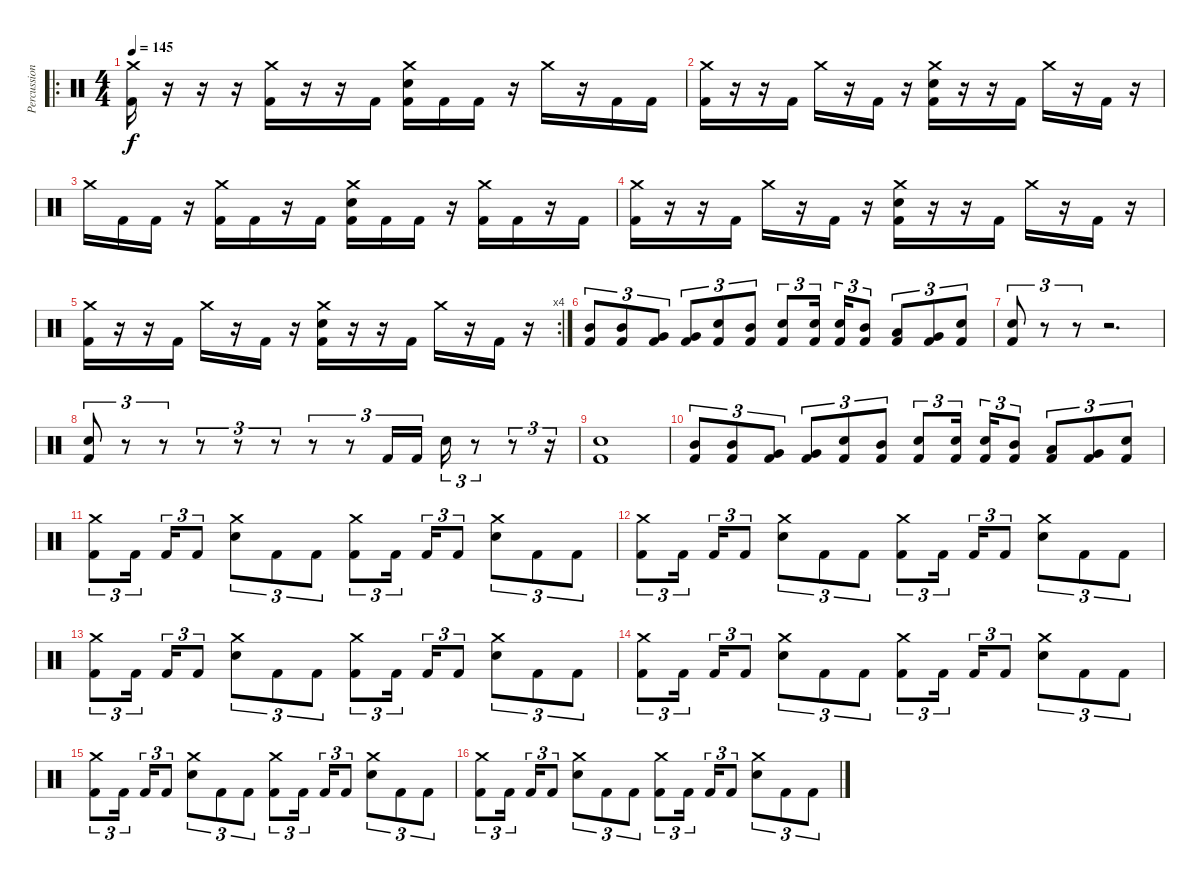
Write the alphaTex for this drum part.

\track ("Percussion" "Percussion") {instrument percussion}
\staff {score}
\articulation defaults
\ro
\ts (4 4)
\tempo 145
\clef neutral
\ks c
("Crash medium (hit)" "Kick (hit) 2").16{dy f} r.16 r.16 r.16 ("Crash medium (hit)" "Kick (hit) 2").16 r.16 r.16 "Kick (hit) 2".16 ("Crash medium (hit)" "Electric Snare (hit)" "Kick (hit) 2").16 "Kick (hit) 2".16 "Kick (hit) 2".16 r.16 "Crash medium (hit)".16 r.16 "Kick (hit) 2".16 "Kick (hit) 2".16 |
("Crash medium (hit)" "Kick (hit) 2").16 r.16 r.16 "Kick (hit) 2".16 "Crash medium (hit)".16 r.16 "Kick (hit) 2".16 r.16 ("Crash medium (hit)" "Electric Snare (hit)" "Kick (hit) 2").16 r.16 r.16 "Kick (hit) 2".16 "Crash medium (hit)".16 r.16 "Kick (hit) 2".16 r.16 |
"Crash medium (hit)".16 "Kick (hit) 2".16 "Kick (hit) 2".16 r.16 ("Crash medium (hit)" "Kick (hit) 2").16 "Kick (hit) 2".16 r.16 "Kick (hit) 2".16 ("Crash medium (hit)" "Electric Snare (hit)" "Kick (hit) 2").16 "Kick (hit) 2".16 "Kick (hit) 2".16 r.16 ("Crash medium (hit)" "Kick (hit) 2").16 "Kick (hit) 2".16 r.16 "Kick (hit) 2".16 |
("Crash medium (hit)" "Kick (hit) 2").16 r.16 r.16 "Kick (hit) 2".16 "Crash medium (hit)".16 r.16 "Kick (hit) 2".16 r.16 ("Crash medium (hit)" "Electric Snare (hit)" "Kick (hit) 2").16 r.16 r.16 "Kick (hit) 2".16 "Crash medium (hit)".16 r.16 "Kick (hit) 2".16 r.16 |
\rc 4
("Crash medium (hit)" "Kick (hit) 2").16 r.16 r.16 "Kick (hit) 2".16 "Crash medium (hit)".16 r.16 "Kick (hit) 2".16 r.16 ("Crash medium (hit)" "Electric Snare (hit)" "Kick (hit) 2").16 r.16 r.16 "Kick (hit) 2".16 "Crash medium (hit)".16 r.16 "Kick (hit) 2".16 r.16 |
("Mid Tom (hit)" "Kick (hit) 2").8{tu (3 2)} ("Mid Tom (hit)" "Kick (hit) 2").8{tu (3 2)} ("Very Low Tom (hit)" "Kick (hit) 2").8{tu (3 2)} ("Very Low Tom (hit)" "Kick (hit) 2").8{tu (3 2)} ("Electric Snare (hit)" "Kick (hit) 2").8{tu (3 2)} ("Mid Tom (hit)" "Kick (hit) 2").8{tu (3 2)} ("Electric Snare (hit)" "Kick (hit) 2").8{tu (3 2)} ("Electric Snare (hit)" "Kick (hit) 2").16{tu (3 2)} ("Electric Snare (hit)" "Kick (hit) 2").16{tu (3 2)} ("Mid Tom (hit)" "Kick (hit) 2").8{tu (3 2)} ("Low Tom (hit)" "Kick (hit) 2").8{tu (3 2)} ("Very Low Tom (hit)" "Kick (hit) 2").8{tu (3 2)} ("Electric Snare (hit)" "Kick (hit) 2").8{tu (3 2)} |
("Electric Snare (hit)" "Kick (hit) 2").8{tu (3 2)} r.8{tu (3 2)} r.8{tu (3 2)} r.2{d} |
("Electric Snare (hit)" "Kick (hit) 2").8{tu (3 2)} r.8{tu (3 2)} r.8{tu (3 2)} r.8{tu (3 2)} r.8{tu (3 2)} r.8{tu (3 2)} r.8{tu (3 2)} r.8{tu (3 2)} "Kick (hit) 2".16{tu (3 2)} "Kick (hit) 2".16{tu (3 2)} "Electric Snare (hit)".16{tu (3 2)} r.8{tu (3 2)} r.8{tu (3 2)} r.16{tu (3 2)} |
("Electric Snare (hit)" "Kick (hit) 2").1 |
("Mid Tom (hit)" "Kick (hit) 2").8{tu (3 2)} ("Mid Tom (hit)" "Kick (hit) 2").8{tu (3 2)} ("Very Low Tom (hit)" "Kick (hit) 2").8{tu (3 2)} ("Very Low Tom (hit)" "Kick (hit) 2").8{tu (3 2)} ("Electric Snare (hit)" "Kick (hit) 2").8{tu (3 2)} ("Mid Tom (hit)" "Kick (hit) 2").8{tu (3 2)} ("Electric Snare (hit)" "Kick (hit) 2").8{tu (3 2)} ("Electric Snare (hit)" "Kick (hit) 2").16{tu (3 2)} ("Electric Snare (hit)" "Kick (hit) 2").16{tu (3 2)} ("Mid Tom (hit)" "Kick (hit) 2").8{tu (3 2)} ("Low Tom (hit)" "Kick (hit) 2").8{tu (3 2)} ("Very Low Tom (hit)" "Kick (hit) 2").8{tu (3 2)} ("Electric Snare (hit)" "Kick (hit) 2").8{tu (3 2)} |
("Crash medium (hit)" "Kick (hit) 2").8{tu (3 2)} "Kick (hit) 2".16{tu (3 2)} "Kick (hit) 2".16{tu (3 2)} "Kick (hit) 2".8{tu (3 2)} ("Crash medium (hit)" "Electric Snare (hit)").8{tu (3 2)} "Kick (hit) 2".8{tu (3 2)} "Kick (hit) 2".8{tu (3 2)} ("Crash medium (hit)" "Kick (hit) 2").8{tu (3 2)} "Kick (hit) 2".16{tu (3 2)} "Kick (hit) 2".16{tu (3 2)} "Kick (hit) 2".8{tu (3 2)} ("Crash medium (hit)" "Electric Snare (hit)").8{tu (3 2)} "Kick (hit) 2".8{tu (3 2)} "Kick (hit) 2".8{tu (3 2)} |
("Crash medium (hit)" "Kick (hit) 2").8{tu (3 2)} "Kick (hit) 2".16{tu (3 2)} "Kick (hit) 2".16{tu (3 2)} "Kick (hit) 2".8{tu (3 2)} ("Crash medium (hit)" "Electric Snare (hit)").8{tu (3 2)} "Kick (hit) 2".8{tu (3 2)} "Kick (hit) 2".8{tu (3 2)} ("Crash medium (hit)" "Kick (hit) 2").8{tu (3 2)} "Kick (hit) 2".16{tu (3 2)} "Kick (hit) 2".16{tu (3 2)} "Kick (hit) 2".8{tu (3 2)} ("Crash medium (hit)" "Electric Snare (hit)").8{tu (3 2)} "Kick (hit) 2".8{tu (3 2)} "Kick (hit) 2".8{tu (3 2)} |
("Crash medium (hit)" "Kick (hit) 2").8{tu (3 2)} "Kick (hit) 2".16{tu (3 2)} "Kick (hit) 2".16{tu (3 2)} "Kick (hit) 2".8{tu (3 2)} ("Crash medium (hit)" "Electric Snare (hit)").8{tu (3 2)} "Kick (hit) 2".8{tu (3 2)} "Kick (hit) 2".8{tu (3 2)} ("Crash medium (hit)" "Kick (hit) 2").8{tu (3 2)} "Kick (hit) 2".16{tu (3 2)} "Kick (hit) 2".16{tu (3 2)} "Kick (hit) 2".8{tu (3 2)} ("Crash medium (hit)" "Electric Snare (hit)").8{tu (3 2)} "Kick (hit) 2".8{tu (3 2)} "Kick (hit) 2".8{tu (3 2)} |
("Crash medium (hit)" "Kick (hit) 2").8{tu (3 2)} "Kick (hit) 2".16{tu (3 2)} "Kick (hit) 2".16{tu (3 2)} "Kick (hit) 2".8{tu (3 2)} ("Crash medium (hit)" "Electric Snare (hit)").8{tu (3 2)} "Kick (hit) 2".8{tu (3 2)} "Kick (hit) 2".8{tu (3 2)} ("Crash medium (hit)" "Kick (hit) 2").8{tu (3 2)} "Kick (hit) 2".16{tu (3 2)} "Kick (hit) 2".16{tu (3 2)} "Kick (hit) 2".8{tu (3 2)} ("Crash medium (hit)" "Electric Snare (hit)").8{tu (3 2)} "Kick (hit) 2".8{tu (3 2)} "Kick (hit) 2".8{tu (3 2)} |
("Crash medium (hit)" "Kick (hit) 2").8{tu (3 2)} "Kick (hit) 2".16{tu (3 2)} "Kick (hit) 2".16{tu (3 2)} "Kick (hit) 2".8{tu (3 2)} ("Crash medium (hit)" "Electric Snare (hit)").8{tu (3 2)} "Kick (hit) 2".8{tu (3 2)} "Kick (hit) 2".8{tu (3 2)} ("Crash medium (hit)" "Kick (hit) 2").8{tu (3 2)} "Kick (hit) 2".16{tu (3 2)} "Kick (hit) 2".16{tu (3 2)} "Kick (hit) 2".8{tu (3 2)} ("Crash medium (hit)" "Electric Snare (hit)").8{tu (3 2)} "Kick (hit) 2".8{tu (3 2)} "Kick (hit) 2".8{tu (3 2)} |
("Crash medium (hit)" "Kick (hit) 2").8{tu (3 2)} "Kick (hit) 2".16{tu (3 2)} "Kick (hit) 2".16{tu (3 2)} "Kick (hit) 2".8{tu (3 2)} ("Crash medium (hit)" "Electric Snare (hit)").8{tu (3 2)} "Kick (hit) 2".8{tu (3 2)} "Kick (hit) 2".8{tu (3 2)} ("Crash medium (hit)" "Kick (hit) 2").8{tu (3 2)} "Kick (hit) 2".16{tu (3 2)} "Kick (hit) 2".16{tu (3 2)} "Kick (hit) 2".8{tu (3 2)} ("Crash medium (hit)" "Electric Snare (hit)").8{tu (3 2)} "Kick (hit) 2".8{tu (3 2)} "Kick (hit) 2".8{tu (3 2)}
